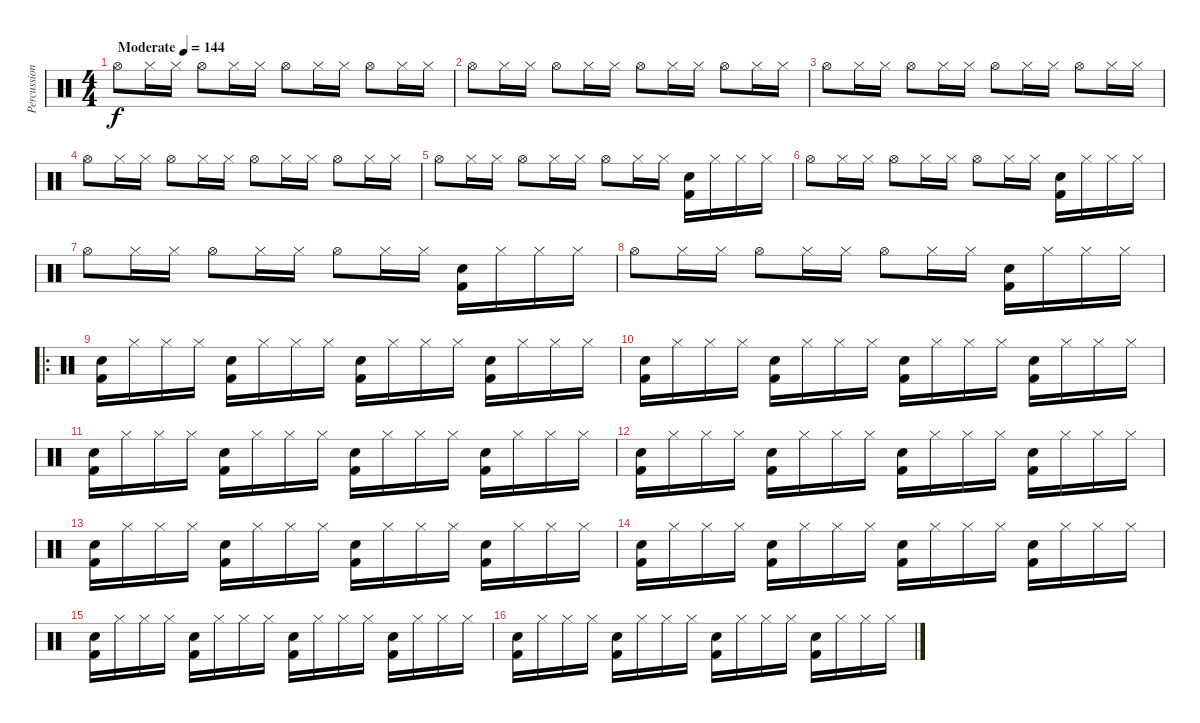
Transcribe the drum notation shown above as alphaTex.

\track ("Percussion" "Percussion") {instrument percussion}
\staff {score}
\articulation defaults
\ts (4 4)
\tempo (144 "Moderate")
\clef neutral
\ks c "Hi-Hat (open)".8{dy f} "Hi-Hat (closed)".16 "Hi-Hat (closed)".16 "Hi-Hat (open)".8 "Hi-Hat (closed)".16 "Hi-Hat (closed)".16 "Hi-Hat (open)".8 "Hi-Hat (closed)".16 "Hi-Hat (closed)".16 "Hi-Hat (open)".8 "Hi-Hat (closed)".16 "Hi-Hat (closed)".16
|
"Hi-Hat (open)".8 "Hi-Hat (closed)".16 "Hi-Hat (closed)".16 "Hi-Hat (open)".8 "Hi-Hat (closed)".16 "Hi-Hat (closed)".16 "Hi-Hat (open)".8 "Hi-Hat (closed)".16 "Hi-Hat (closed)".16 "Hi-Hat (open)".8 "Hi-Hat (closed)".16 "Hi-Hat (closed)".16 |
"Hi-Hat (open)".8 "Hi-Hat (closed)".16 "Hi-Hat (closed)".16 "Hi-Hat (open)".8 "Hi-Hat (closed)".16 "Hi-Hat (closed)".16 "Hi-Hat (open)".8 "Hi-Hat (closed)".16 "Hi-Hat (closed)".16 "Hi-Hat (open)".8 "Hi-Hat (closed)".16 "Hi-Hat (closed)".16 |
"Hi-Hat (open)".8 "Hi-Hat (closed)".16 "Hi-Hat (closed)".16 "Hi-Hat (open)".8 "Hi-Hat (closed)".16 "Hi-Hat (closed)".16 "Hi-Hat (open)".8 "Hi-Hat (closed)".16 "Hi-Hat (closed)".16 "Hi-Hat (open)".8 "Hi-Hat (closed)".16 "Hi-Hat (closed)".16 |
"Hi-Hat (open)".8 "Hi-Hat (closed)".16 "Hi-Hat (closed)".16 "Hi-Hat (open)".8 "Hi-Hat (closed)".16 "Hi-Hat (closed)".16 "Hi-Hat (open)".8 "Hi-Hat (closed)".16 "Hi-Hat (closed)".16 ("Snare (hit) 2" "Kick (hit) 2").16 "Hi-Hat (closed)".16 "Hi-Hat (closed)".16 "Hi-Hat (closed)".16 |
"Hi-Hat (open)".8 "Hi-Hat (closed)".16 "Hi-Hat (closed)".16 "Hi-Hat (open)".8 "Hi-Hat (closed)".16 "Hi-Hat (closed)".16 "Hi-Hat (open)".8 "Hi-Hat (closed)".16 "Hi-Hat (closed)".16 ("Snare (hit) 2" "Kick (hit) 2").16 "Hi-Hat (closed)".16 "Hi-Hat (closed)".16 "Hi-Hat (closed)".16 |
"Hi-Hat (open)".8 "Hi-Hat (closed)".16 "Hi-Hat (closed)".16 "Hi-Hat (open)".8 "Hi-Hat (closed)".16 "Hi-Hat (closed)".16 "Hi-Hat (open)".8 "Hi-Hat (closed)".16 "Hi-Hat (closed)".16 ("Snare (hit) 2" "Kick (hit) 2").16 "Hi-Hat (closed)".16 "Hi-Hat (closed)".16 "Hi-Hat (closed)".16 |
"Hi-Hat (open)".8 "Hi-Hat (closed)".16 "Hi-Hat (closed)".16 "Hi-Hat (open)".8 "Hi-Hat (closed)".16 "Hi-Hat (closed)".16 "Hi-Hat (open)".8 "Hi-Hat (closed)".16 "Hi-Hat (closed)".16 ("Snare (hit) 2" "Kick (hit) 2").16 "Hi-Hat (closed)".16 "Hi-Hat (closed)".16 "Hi-Hat (closed)".16 |
\ro
("Snare (hit) 2" "Kick (hit) 2").16 "Hi-Hat (closed)".16 "Hi-Hat (closed)".16 "Hi-Hat (closed)".16 ("Snare (hit) 2" "Kick (hit) 2").16 "Hi-Hat (closed)".16 "Hi-Hat (closed)".16 "Hi-Hat (closed)".16 ("Snare (hit) 2" "Kick (hit) 2").16 "Hi-Hat (closed)".16 "Hi-Hat (closed)".16 "Hi-Hat (closed)".16 ("Snare (hit) 2" "Kick (hit) 2").16 "Hi-Hat (closed)".16 "Hi-Hat (closed)".16 "Hi-Hat (closed)".16 |
("Snare (hit) 2" "Kick (hit) 2").16 "Hi-Hat (closed)".16 "Hi-Hat (closed)".16 "Hi-Hat (closed)".16 ("Snare (hit) 2" "Kick (hit) 2").16 "Hi-Hat (closed)".16 "Hi-Hat (closed)".16 "Hi-Hat (closed)".16 ("Snare (hit) 2" "Kick (hit) 2").16 "Hi-Hat (closed)".16 "Hi-Hat (closed)".16 "Hi-Hat (closed)".16 ("Snare (hit) 2" "Kick (hit) 2").16 "Hi-Hat (closed)".16 "Hi-Hat (closed)".16 "Hi-Hat (closed)".16 |
("Snare (hit) 2" "Kick (hit) 2").16 "Hi-Hat (closed)".16 "Hi-Hat (closed)".16 "Hi-Hat (closed)".16 ("Snare (hit) 2" "Kick (hit) 2").16 "Hi-Hat (closed)".16 "Hi-Hat (closed)".16 "Hi-Hat (closed)".16 ("Snare (hit) 2" "Kick (hit) 2").16 "Hi-Hat (closed)".16 "Hi-Hat (closed)".16 "Hi-Hat (closed)".16 ("Snare (hit) 2" "Kick (hit) 2").16 "Hi-Hat (closed)".16 "Hi-Hat (closed)".16 "Hi-Hat (closed)".16 |
("Snare (hit) 2" "Kick (hit) 2").16 "Hi-Hat (closed)".16 "Hi-Hat (closed)".16 "Hi-Hat (closed)".16 ("Snare (hit) 2" "Kick (hit) 2").16 "Hi-Hat (closed)".16 "Hi-Hat (closed)".16 "Hi-Hat (closed)".16 ("Snare (hit) 2" "Kick (hit) 2").16 "Hi-Hat (closed)".16 "Hi-Hat (closed)".16 "Hi-Hat (closed)".16 ("Snare (hit) 2" "Kick (hit) 2").16 "Hi-Hat (closed)".16 "Hi-Hat (closed)".16 "Hi-Hat (closed)".16 |
("Snare (hit) 2" "Kick (hit) 2").16 "Hi-Hat (closed)".16 "Hi-Hat (closed)".16 "Hi-Hat (closed)".16 ("Snare (hit) 2" "Kick (hit) 2").16 "Hi-Hat (closed)".16 "Hi-Hat (closed)".16 "Hi-Hat (closed)".16 ("Snare (hit) 2" "Kick (hit) 2").16 "Hi-Hat (closed)".16 "Hi-Hat (closed)".16 "Hi-Hat (closed)".16 ("Snare (hit) 2" "Kick (hit) 2").16 "Hi-Hat (closed)".16 "Hi-Hat (closed)".16 "Hi-Hat (closed)".16 |
("Snare (hit) 2" "Kick (hit) 2").16 "Hi-Hat (closed)".16 "Hi-Hat (closed)".16 "Hi-Hat (closed)".16 ("Snare (hit) 2" "Kick (hit) 2").16 "Hi-Hat (closed)".16 "Hi-Hat (closed)".16 "Hi-Hat (closed)".16 ("Snare (hit) 2" "Kick (hit) 2").16 "Hi-Hat (closed)".16 "Hi-Hat (closed)".16 "Hi-Hat (closed)".16 ("Snare (hit) 2" "Kick (hit) 2").16 "Hi-Hat (closed)".16 "Hi-Hat (closed)".16 "Hi-Hat (closed)".16 |
("Snare (hit) 2" "Kick (hit) 2").16 "Hi-Hat (closed)".16 "Hi-Hat (closed)".16 "Hi-Hat (closed)".16 ("Snare (hit) 2" "Kick (hit) 2").16 "Hi-Hat (closed)".16 "Hi-Hat (closed)".16 "Hi-Hat (closed)".16 ("Snare (hit) 2" "Kick (hit) 2").16 "Hi-Hat (closed)".16 "Hi-Hat (closed)".16 "Hi-Hat (closed)".16 ("Snare (hit) 2" "Kick (hit) 2").16 "Hi-Hat (closed)".16 "Hi-Hat (closed)".16 "Hi-Hat (closed)".16 |
("Snare (hit) 2" "Kick (hit) 2").16 "Hi-Hat (closed)".16 "Hi-Hat (closed)".16 "Hi-Hat (closed)".16 ("Snare (hit) 2" "Kick (hit) 2").16 "Hi-Hat (closed)".16 "Hi-Hat (closed)".16 "Hi-Hat (closed)".16 ("Snare (hit) 2" "Kick (hit) 2").16 "Hi-Hat (closed)".16 "Hi-Hat (closed)".16 "Hi-Hat (closed)".16 ("Snare (hit) 2" "Kick (hit) 2").16 "Hi-Hat (closed)".16 "Hi-Hat (closed)".16 "Hi-Hat (closed)".16
